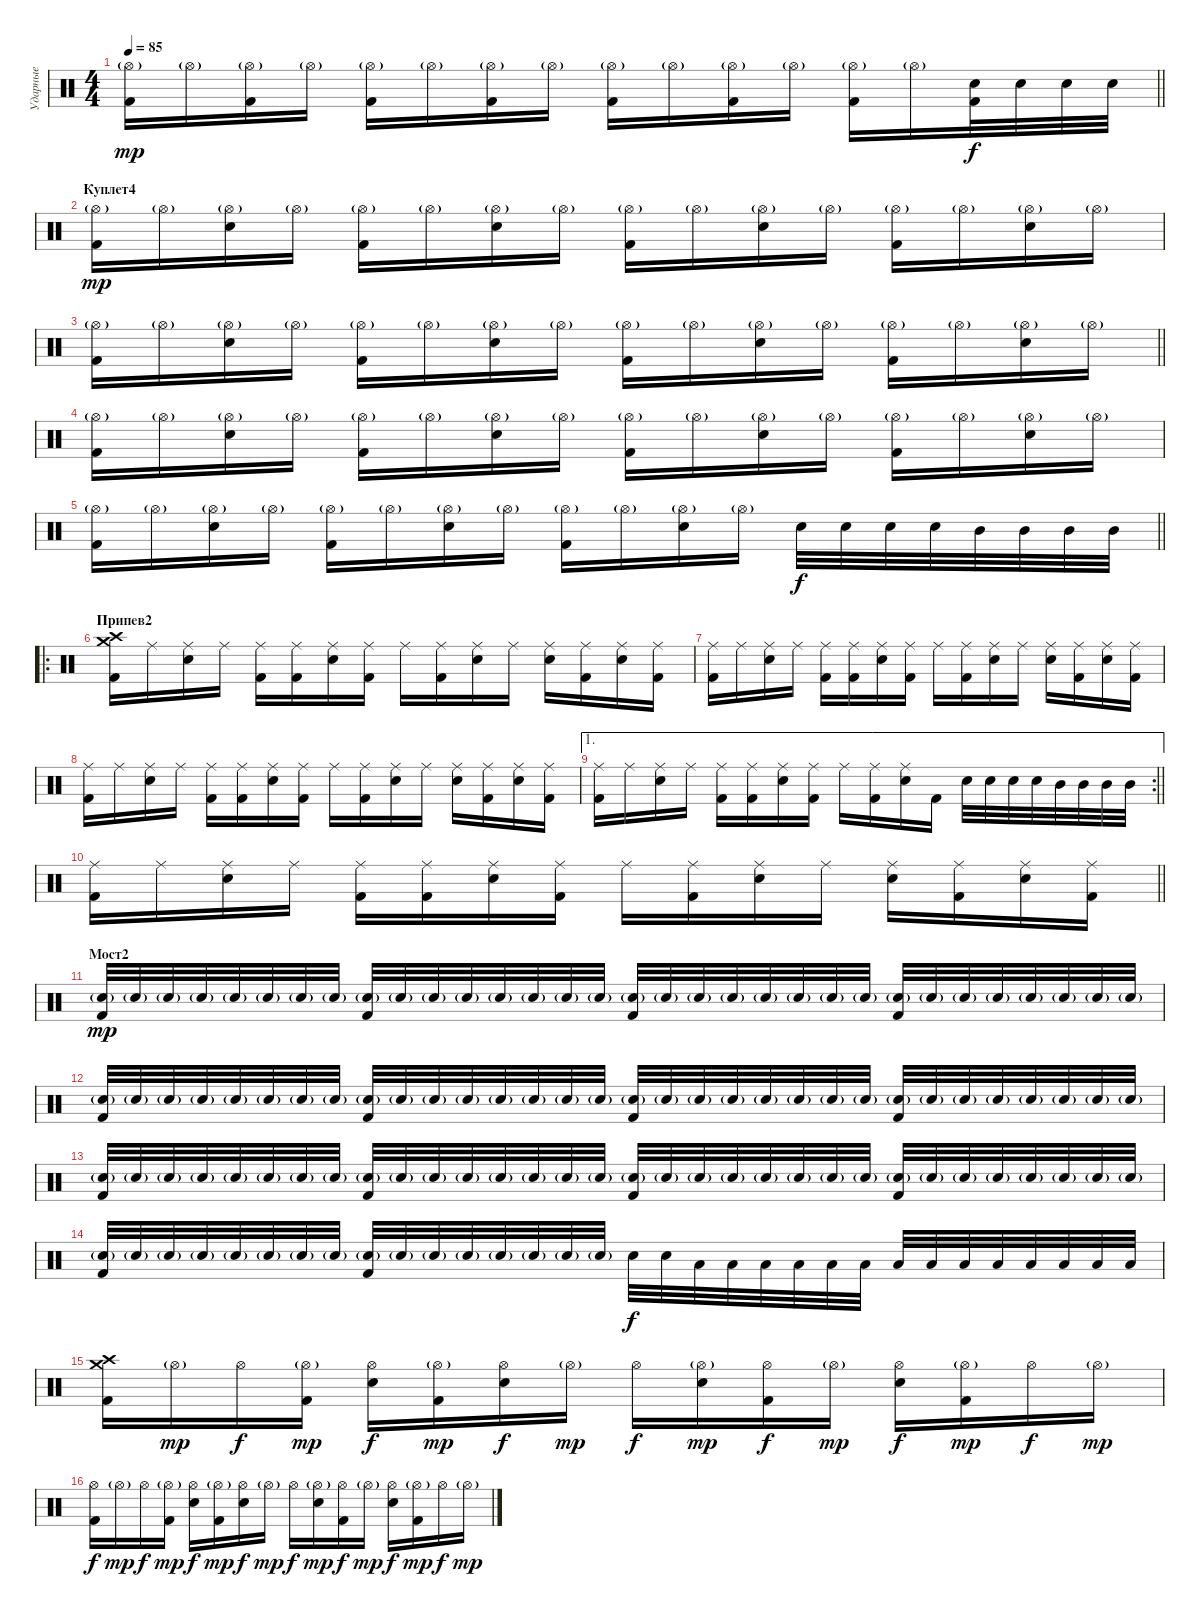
\track ("Ударные" "Ударные") {instrument percussion}
\staff {score}
\articulation defaults
\ts (4 4)
\tempo 85
\clef neutral
\barLineRight lightlight
\ks c
("Hi-Hat (open)"{g} "Kick (hit) 2").16{dy mp} "Hi-Hat (open)"{g}.16 ("Hi-Hat (open)"{g} "Kick (hit) 2").16 "Hi-Hat (open)"{g}.16 ("Hi-Hat (open)"{g} "Kick (hit) 2").16 "Hi-Hat (open)"{g}.16 ("Hi-Hat (open)"{g} "Kick (hit) 2").16 "Hi-Hat (open)"{g}.16 ("Hi-Hat (open)"{g} "Kick (hit) 2").16 "Hi-Hat (open)"{g}.16 ("Hi-Hat (open)"{g} "Kick (hit) 2").16 "Hi-Hat (open)"{g}.16 ("Hi-Hat (open)"{g} "Kick (hit) 2").16 "Hi-Hat (open)"{g}.16 ("Electric Snare (hit)" "Kick (hit) 2").32{dy f} "Electric Snare (hit)".32 "Electric Snare (hit)".32 "Electric Snare (hit)".32 |
\section ("" "Куплет4")
("Hi-Hat (open)"{g} "Kick (hit) 2").16{dy mp} "Hi-Hat (open)"{g}.16 ("Hi-Hat (open)"{g} "Electric Snare (hit)").16 "Hi-Hat (open)"{g}.16 ("Hi-Hat (open)"{g} "Kick (hit) 2").16 "Hi-Hat (open)"{g}.16 ("Hi-Hat (open)"{g} "Electric Snare (hit)").16 "Hi-Hat (open)"{g}.16 ("Hi-Hat (open)"{g} "Kick (hit) 2").16 "Hi-Hat (open)"{g}.16 ("Hi-Hat (open)"{g} "Electric Snare (hit)").16 "Hi-Hat (open)"{g}.16 ("Hi-Hat (open)"{g} "Kick (hit) 2").16 "Hi-Hat (open)"{g}.16 ("Hi-Hat (open)"{g} "Electric Snare (hit)").16 "Hi-Hat (open)"{g}.16 |
\barLineRight lightlight
("Hi-Hat (open)"{g} "Kick (hit) 2").16 "Hi-Hat (open)"{g}.16 ("Hi-Hat (open)"{g} "Electric Snare (hit)").16 "Hi-Hat (open)"{g}.16 ("Hi-Hat (open)"{g} "Kick (hit) 2").16 "Hi-Hat (open)"{g}.16 ("Hi-Hat (open)"{g} "Electric Snare (hit)").16 "Hi-Hat (open)"{g}.16 ("Hi-Hat (open)"{g} "Kick (hit) 2").16 "Hi-Hat (open)"{g}.16 ("Hi-Hat (open)"{g} "Electric Snare (hit)").16 "Hi-Hat (open)"{g}.16 ("Hi-Hat (open)"{g} "Kick (hit) 2").16 "Hi-Hat (open)"{g}.16 ("Hi-Hat (open)"{g} "Electric Snare (hit)").16 "Hi-Hat (open)"{g}.16 |
("Hi-Hat (open)"{g} "Kick (hit) 2").16 "Hi-Hat (open)"{g}.16 ("Hi-Hat (open)"{g} "Electric Snare (hit)").16 "Hi-Hat (open)"{g}.16 ("Hi-Hat (open)"{g} "Kick (hit) 2").16 "Hi-Hat (open)"{g}.16 ("Hi-Hat (open)"{g} "Electric Snare (hit)").16 "Hi-Hat (open)"{g}.16 ("Hi-Hat (open)"{g} "Kick (hit) 2").16 "Hi-Hat (open)"{g}.16 ("Hi-Hat (open)"{g} "Electric Snare (hit)").16 "Hi-Hat (open)"{g}.16 ("Hi-Hat (open)"{g} "Kick (hit) 2").16 "Hi-Hat (open)"{g}.16 ("Hi-Hat (open)"{g} "Electric Snare (hit)").16 "Hi-Hat (open)"{g}.16 |
\barLineRight lightlight
("Hi-Hat (open)"{g} "Kick (hit) 2").16 "Hi-Hat (open)"{g}.16 ("Hi-Hat (open)"{g} "Electric Snare (hit)").16 "Hi-Hat (open)"{g}.16 ("Hi-Hat (open)"{g} "Kick (hit) 2").16 "Hi-Hat (open)"{g}.16 ("Hi-Hat (open)"{g} "Electric Snare (hit)").16 "Hi-Hat (open)"{g}.16 ("Hi-Hat (open)"{g} "Kick (hit) 2").16 "Hi-Hat (open)"{g}.16 ("Hi-Hat (open)"{g} "Electric Snare (hit)").16 "Hi-Hat (open)"{g}.16 "Electric Snare (hit)".32{dy f} "Electric Snare (hit)".32 "Electric Snare (hit)".32 "Electric Snare (hit)".32 "Mid Tom (hit)".32 "Mid Tom (hit)".32 "Mid Tom (hit)".32 "Mid Tom (hit)".32 |
\ro
\section ("" "Припев2")
("Crash high (hit)" "Crash medium (hit)" "Kick (hit) 2").16 "Ride (middle)".16 ("Ride (middle)" "Electric Snare (hit)").16 "Ride (middle)".16 ("Ride (middle)" "Kick (hit) 2").16 ("Ride (middle)" "Kick (hit) 2").16 ("Ride (middle)" "Electric Snare (hit)").16 ("Ride (middle)" "Kick (hit) 2").16 "Ride (middle)".16 ("Ride (middle)" "Kick (hit) 2").16 ("Ride (middle)" "Electric Snare (hit)").16 "Ride (middle)".16 ("Ride (middle)" "Electric Snare (hit)").16 ("Ride (middle)" "Kick (hit) 2").16 ("Ride (middle)" "Electric Snare (hit)").16 ("Ride (middle)" "Kick (hit) 2").16 |
("Ride (middle)" "Kick (hit) 2").16 "Ride (middle)".16 ("Ride (middle)" "Electric Snare (hit)").16 "Ride (middle)".16 ("Ride (middle)" "Kick (hit) 2").16 ("Ride (middle)" "Kick (hit) 2").16 ("Ride (middle)" "Electric Snare (hit)").16 ("Ride (middle)" "Kick (hit) 2").16 "Ride (middle)".16 ("Ride (middle)" "Kick (hit) 2").16 ("Ride (middle)" "Electric Snare (hit)").16 "Ride (middle)".16 ("Ride (middle)" "Electric Snare (hit)").16 ("Ride (middle)" "Kick (hit) 2").16 ("Ride (middle)" "Electric Snare (hit)").16 ("Ride (middle)" "Kick (hit) 2").16 |
("Ride (middle)" "Kick (hit) 2").16 "Ride (middle)".16 ("Ride (middle)" "Electric Snare (hit)").16 "Ride (middle)".16 ("Ride (middle)" "Kick (hit) 2").16 ("Ride (middle)" "Kick (hit) 2").16 ("Ride (middle)" "Electric Snare (hit)").16 ("Ride (middle)" "Kick (hit) 2").16 "Ride (middle)".16 ("Ride (middle)" "Kick (hit) 2").16 ("Ride (middle)" "Electric Snare (hit)").16 "Ride (middle)".16 ("Ride (middle)" "Electric Snare (hit)").16 ("Ride (middle)" "Kick (hit) 2").16 ("Ride (middle)" "Electric Snare (hit)").16 ("Ride (middle)" "Kick (hit) 2").16 |
\ae 1
\rc 2
\barLineRight lightlight
("Ride (middle)" "Kick (hit) 2").16 "Ride (middle)".16 ("Ride (middle)" "Electric Snare (hit)").16 "Ride (middle)".16 ("Ride (middle)" "Kick (hit) 2").16 ("Ride (middle)" "Kick (hit) 2").16 ("Ride (middle)" "Electric Snare (hit)").16 ("Ride (middle)" "Kick (hit) 2").16 "Ride (middle)".16 ("Ride (middle)" "Kick (hit) 2").16 ("Ride (middle)" "Electric Snare (hit)").16 "Kick (hit) 2".16 "Electric Snare (hit)".32 "Electric Snare (hit)".32 "Electric Snare (hit)".32 "Electric Snare (hit)".32 "Mid Tom (hit)".32 "Mid Tom (hit)".32 "Mid Tom (hit)".32 "Mid Tom (hit)".32 |
\barLineRight lightlight
("Ride (middle)" "Kick (hit) 2").16 "Ride (middle)".16 ("Ride (middle)" "Electric Snare (hit)").16 "Ride (middle)".16 ("Ride (middle)" "Kick (hit) 2").16 ("Ride (middle)" "Kick (hit) 2").16 ("Ride (middle)" "Electric Snare (hit)").16 ("Ride (middle)" "Kick (hit) 2").16 "Ride (middle)".16 ("Ride (middle)" "Kick (hit) 2").16 ("Ride (middle)" "Electric Snare (hit)").16 "Ride (middle)".16 ("Ride (middle)" "Electric Snare (hit)").16 ("Ride (middle)" "Kick (hit) 2").16 ("Ride (middle)" "Electric Snare (hit)").16 ("Ride (middle)" "Kick (hit) 2").16 |
\section ("" "Мост2")
("Electric Snare (hit)"{g} "Kick (hit) 2").32{dy mp} "Electric Snare (hit)"{g}.32 "Electric Snare (hit)"{g}.32 "Electric Snare (hit)"{g}.32 "Electric Snare (hit)"{g}.32 "Electric Snare (hit)"{g}.32 "Electric Snare (hit)"{g}.32 "Electric Snare (hit)"{g}.32 ("Electric Snare (hit)"{g} "Kick (hit) 2").32 "Electric Snare (hit)"{g}.32 "Electric Snare (hit)"{g}.32 "Electric Snare (hit)"{g}.32 "Electric Snare (hit)"{g}.32 "Electric Snare (hit)"{g}.32 "Electric Snare (hit)"{g}.32 "Electric Snare (hit)"{g}.32 ("Electric Snare (hit)"{g} "Kick (hit) 2").32 "Electric Snare (hit)"{g}.32 "Electric Snare (hit)"{g}.32 "Electric Snare (hit)"{g}.32 "Electric Snare (hit)"{g}.32 "Electric Snare (hit)"{g}.32 "Electric Snare (hit)"{g}.32 "Electric Snare (hit)"{g}.32 ("Electric Snare (hit)"{g} "Kick (hit) 2").32 "Electric Snare (hit)"{g}.32 "Electric Snare (hit)"{g}.32 "Electric Snare (hit)"{g}.32 "Electric Snare (hit)"{g}.32 "Electric Snare (hit)"{g}.32 "Electric Snare (hit)"{g}.32 "Electric Snare (hit)"{g}.32 |
("Electric Snare (hit)"{g} "Kick (hit) 2").32 "Electric Snare (hit)"{g}.32 "Electric Snare (hit)"{g}.32 "Electric Snare (hit)"{g}.32 "Electric Snare (hit)"{g}.32 "Electric Snare (hit)"{g}.32 "Electric Snare (hit)"{g}.32 "Electric Snare (hit)"{g}.32 ("Electric Snare (hit)"{g} "Kick (hit) 2").32 "Electric Snare (hit)"{g}.32 "Electric Snare (hit)"{g}.32 "Electric Snare (hit)"{g}.32 "Electric Snare (hit)"{g}.32 "Electric Snare (hit)"{g}.32 "Electric Snare (hit)"{g}.32 "Electric Snare (hit)"{g}.32 ("Electric Snare (hit)"{g} "Kick (hit) 2").32 "Electric Snare (hit)"{g}.32 "Electric Snare (hit)"{g}.32 "Electric Snare (hit)"{g}.32 "Electric Snare (hit)"{g}.32 "Electric Snare (hit)"{g}.32 "Electric Snare (hit)"{g}.32 "Electric Snare (hit)"{g}.32 ("Electric Snare (hit)"{g} "Kick (hit) 2").32 "Electric Snare (hit)"{g}.32 "Electric Snare (hit)"{g}.32 "Electric Snare (hit)"{g}.32 "Electric Snare (hit)"{g}.32 "Electric Snare (hit)"{g}.32 "Electric Snare (hit)"{g}.32 "Electric Snare (hit)"{g}.32 |
("Electric Snare (hit)"{g} "Kick (hit) 2").32 "Electric Snare (hit)"{g}.32 "Electric Snare (hit)"{g}.32 "Electric Snare (hit)"{g}.32 "Electric Snare (hit)"{g}.32 "Electric Snare (hit)"{g}.32 "Electric Snare (hit)"{g}.32 "Electric Snare (hit)"{g}.32 ("Electric Snare (hit)"{g} "Kick (hit) 2").32 "Electric Snare (hit)"{g}.32 "Electric Snare (hit)"{g}.32 "Electric Snare (hit)"{g}.32 "Electric Snare (hit)"{g}.32 "Electric Snare (hit)"{g}.32 "Electric Snare (hit)"{g}.32 "Electric Snare (hit)"{g}.32 ("Electric Snare (hit)"{g} "Kick (hit) 2").32 "Electric Snare (hit)"{g}.32 "Electric Snare (hit)"{g}.32 "Electric Snare (hit)"{g}.32 "Electric Snare (hit)"{g}.32 "Electric Snare (hit)"{g}.32 "Electric Snare (hit)"{g}.32 "Electric Snare (hit)"{g}.32 ("Electric Snare (hit)"{g} "Kick (hit) 2").32 "Electric Snare (hit)"{g}.32 "Electric Snare (hit)"{g}.32 "Electric Snare (hit)"{g}.32 "Electric Snare (hit)"{g}.32 "Electric Snare (hit)"{g}.32 "Electric Snare (hit)"{g}.32 "Electric Snare (hit)"{g}.32 |
("Electric Snare (hit)"{g} "Kick (hit) 2").32 "Electric Snare (hit)"{g}.32 "Electric Snare (hit)"{g}.32 "Electric Snare (hit)"{g}.32 "Electric Snare (hit)"{g}.32 "Electric Snare (hit)"{g}.32 "Electric Snare (hit)"{g}.32 "Electric Snare (hit)"{g}.32 ("Electric Snare (hit)"{g} "Kick (hit) 2").32 "Electric Snare (hit)"{g}.32 "Electric Snare (hit)"{g}.32 "Electric Snare (hit)"{g}.32 "Electric Snare (hit)"{g}.32 "Electric Snare (hit)"{g}.32 "Electric Snare (hit)"{g}.32 "Electric Snare (hit)"{g}.32 "Electric Snare (hit)".32{dy f} "Electric Snare (hit)".32 "Low Tom (hit)".32 "Low Tom (hit)".32 "Low Floor Tom (hit)".32 "Low Floor Tom (hit)".32 "Low Tom (hit)".32 "Low Tom (hit)".32 "Low Floor Tom (hit)".32 "Low Floor Tom (hit)".32 "Low Floor Tom (hit)".32 "Low Tom (hit)".32 "Low Tom (hit)".32 "Low Floor Tom (hit)".32 "Low Floor Tom (hit)".32 "Low Floor Tom (hit)".32 |
("Crash high (hit)" "Crash medium (hit)" "Kick (hit) 2").16 "Hi-Hat (open)"{g}.16{dy mp} "Hi-Hat (open)".16{dy f} ("Hi-Hat (open)"{g} "Kick (hit) 2").16{dy mp} ("Hi-Hat (open)" "Electric Snare (hit)").16{dy f} ("Hi-Hat (open)"{g} "Kick (hit) 2").16{dy mp} ("Hi-Hat (open)" "Electric Snare (hit)").16{dy f} "Hi-Hat (open)"{g}.16{dy mp} "Hi-Hat (open)".16{dy f} ("Hi-Hat (open)"{g} "Electric Snare (hit)").16{dy mp} ("Hi-Hat (open)" "Kick (hit) 2").16{dy f} "Hi-Hat (open)"{g}.16{dy mp} ("Hi-Hat (open)" "Electric Snare (hit)").16{dy f} ("Hi-Hat (open)"{g} "Kick (hit) 2").16{dy mp} "Hi-Hat (open)".16{dy f} "Hi-Hat (open)"{g}.16{dy mp} |
("Hi-Hat (open)" "Kick (hit) 2").16{dy f} "Hi-Hat (open)"{g}.16{dy mp} "Hi-Hat (open)".16{dy f} ("Hi-Hat (open)"{g} "Kick (hit) 2").16{dy mp} ("Hi-Hat (open)" "Electric Snare (hit)").16{dy f} ("Hi-Hat (open)"{g} "Kick (hit) 2").16{dy mp} ("Hi-Hat (open)" "Electric Snare (hit)").16{dy f} "Hi-Hat (open)"{g}.16{dy mp} "Hi-Hat (open)".16{dy f} ("Hi-Hat (open)"{g} "Electric Snare (hit)").16{dy mp} ("Hi-Hat (open)" "Kick (hit) 2").16{dy f} "Hi-Hat (open)"{g}.16{dy mp} ("Hi-Hat (open)" "Electric Snare (hit)").16{dy f} ("Hi-Hat (open)"{g} "Kick (hit) 2").16{dy mp} "Hi-Hat (open)".16{dy f} "Hi-Hat (open)"{g}.16{dy mp}
